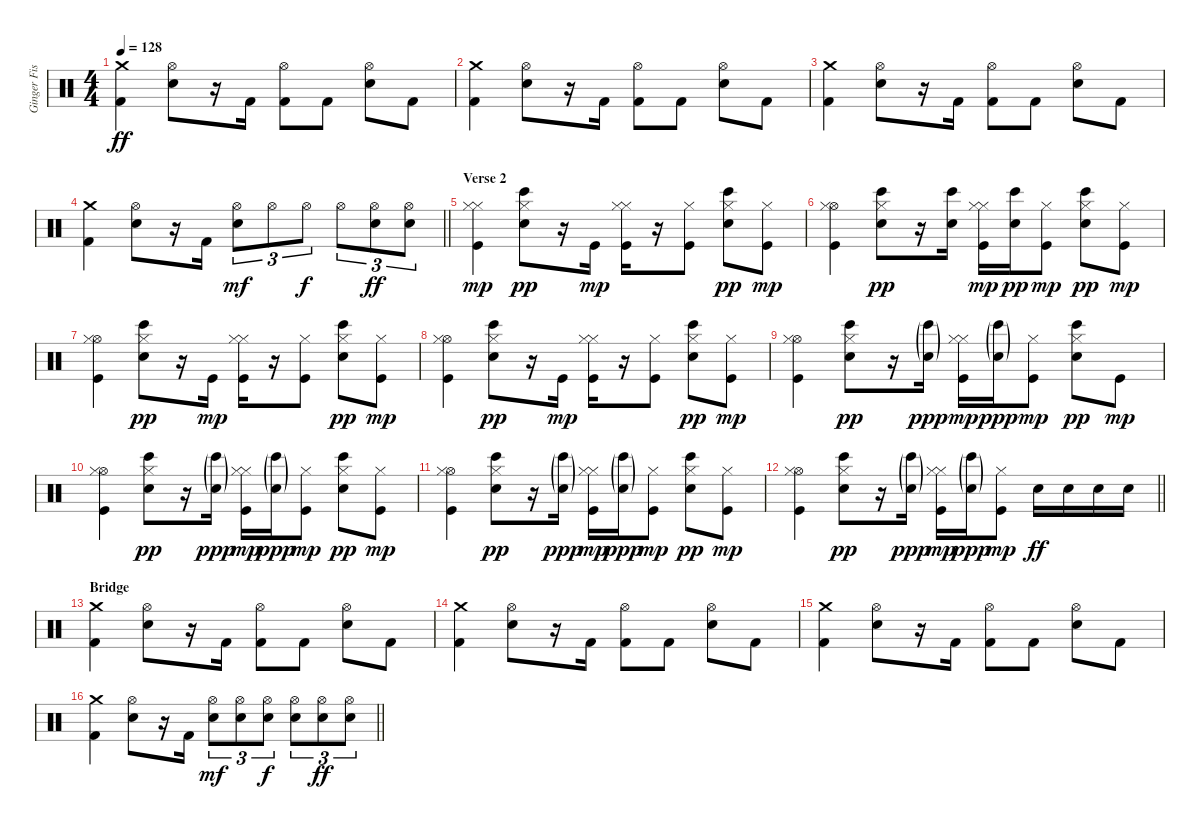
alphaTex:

\track ("Ginger Fish" "Ginger Fis") {instrument percussion}
\staff {score}
\articulation defaults
\ts (4 4)
\tempo 128
\clef neutral
\ks c
("Crash medium (hit)" "Kick (hit) 2").4{dy ff} ("Hi-Hat (open)" "Electric Snare (hit)").8 r.16 "Kick (hit) 2".16 ("Hi-Hat (open)" "Kick (hit) 2").8 "Kick (hit) 2".8 ("Hi-Hat (open)" "Electric Snare (hit)").8 "Kick (hit) 2".8 |
("Crash medium (hit)" "Kick (hit) 2").4 ("Hi-Hat (open)" "Electric Snare (hit)").8 r.16 "Kick (hit) 2".16 ("Hi-Hat (open)" "Kick (hit) 2").8 "Kick (hit) 2".8 ("Hi-Hat (open)" "Electric Snare (hit)").8 "Kick (hit) 2".8 |
("Crash medium (hit)" "Kick (hit) 2").4 ("Hi-Hat (open)" "Electric Snare (hit)").8 r.16 "Kick (hit) 2".16 ("Hi-Hat (open)" "Kick (hit) 2").8 "Kick (hit) 2".8 ("Hi-Hat (open)" "Electric Snare (hit)").8 "Kick (hit) 2".8 |
\barLineRight lightlight
("Crash medium (hit)" "Kick (hit) 2").4 ("Hi-Hat (open)" "Electric Snare (hit)").8 r.16 "Kick (hit) 2".16 ("Hi-Hat (open)" "Electric Snare (hit)").8{tu (3 2) dy mf} "Hi-Hat (open)".8{tu (3 2)} "Hi-Hat (open)".8{tu (3 2) dy f} "Hi-Hat (open)".8{tu (3 2)} ("Hi-Hat (open)" "Electric Snare (hit)").8{tu (3 2) dy ff} ("Hi-Hat (open)" "Electric Snare (hit)").8{tu (3 2)} |
\section ("" "Verse 2")
("Hi-Hat (closed)" "Hi-Hat (closed)" "Kick (hit)").4{dy mp} ("Hi-Hat (closed)" "Bongo High (hit)" "Electric Snare (hit)").8{dy pp} r.16 "Kick (hit)".16{dy mp} ("Hi-Hat (closed)" "Hi-Hat (closed)" "Kick (hit)").16 r.16 ("Hi-Hat (closed)" "Kick (hit)").8 ("Hi-Hat (closed)" "Bongo High (hit)" "Electric Snare (hit)").8{dy pp} ("Hi-Hat (closed)" "Kick (hit)").8{dy mp} |
("Hi-Hat (open)" "Hi-Hat (closed)" "Kick (hit)").4 ("Hi-Hat (closed)" "Bongo High (hit)" "Electric Snare (hit)").8{dy pp} r.16 ("Bongo High (hit)" "Electric Snare (hit)").16 ("Hi-Hat (closed)" "Hi-Hat (closed)" "Kick (hit)").16{dy mp} ("Bongo High (hit)" "Electric Snare (hit)").16{dy pp} ("Hi-Hat (closed)" "Kick (hit)").8{dy mp} ("Hi-Hat (closed)" "Bongo High (hit)" "Electric Snare (hit)").8{dy pp} ("Hi-Hat (closed)" "Kick (hit)").8{dy mp} |
("Hi-Hat (open)" "Hi-Hat (closed)" "Kick (hit)").4 ("Hi-Hat (closed)" "Bongo High (hit)" "Electric Snare (hit)").8{dy pp} r.16 "Kick (hit)".16{dy mp} ("Hi-Hat (closed)" "Hi-Hat (closed)" "Kick (hit)").16 r.16 ("Hi-Hat (closed)" "Kick (hit)").8 ("Hi-Hat (closed)" "Bongo High (hit)" "Electric Snare (hit)").8{dy pp} ("Hi-Hat (closed)" "Kick (hit)").8{dy mp} |
("Hi-Hat (open)" "Hi-Hat (closed)" "Kick (hit)").4 ("Hi-Hat (closed)" "Bongo High (hit)" "Electric Snare (hit)").8{dy pp} r.16 "Kick (hit)".16{dy mp} ("Hi-Hat (closed)" "Hi-Hat (closed)" "Kick (hit)").16 r.16 ("Hi-Hat (closed)" "Kick (hit)").8 ("Hi-Hat (closed)" "Bongo High (hit)" "Electric Snare (hit)").8{dy pp} ("Hi-Hat (closed)" "Kick (hit)").8{dy mp} |
("Hi-Hat (open)" "Hi-Hat (closed)" "Kick (hit)").4 ("Hi-Hat (closed)" "Bongo High (hit)" "Electric Snare (hit)").8{dy pp} r.16 ("Bongo High (hit)"{g} "Electric Snare (hit)"{g}).16{dy ppp} ("Hi-Hat (closed)" "Hi-Hat (closed)" "Kick (hit)").16{dy mp} ("Bongo High (hit)"{g} "Electric Snare (hit)"{g}).16{dy ppp} ("Hi-Hat (closed)" "Kick (hit)").8{dy mp} ("Hi-Hat (closed)" "Bongo High (hit)" "Electric Snare (hit)").8{dy pp} "Kick (hit)".8{dy mp} |
("Hi-Hat (open)" "Hi-Hat (closed)" "Kick (hit)").4 ("Hi-Hat (closed)" "Bongo High (hit)" "Electric Snare (hit)").8{dy pp} r.16 ("Bongo High (hit)"{g} "Electric Snare (hit)"{g}).16{dy ppp} ("Hi-Hat (closed)" "Hi-Hat (closed)" "Kick (hit)").16{dy mp} ("Bongo High (hit)"{g} "Electric Snare (hit)"{g}).16{dy ppp} ("Hi-Hat (closed)" "Kick (hit)").8{dy mp} ("Hi-Hat (closed)" "Bongo High (hit)" "Electric Snare (hit)").8{dy pp} ("Hi-Hat (closed)" "Kick (hit)").8{dy mp} |
("Hi-Hat (open)" "Hi-Hat (closed)" "Kick (hit)").4 ("Hi-Hat (closed)" "Bongo High (hit)" "Electric Snare (hit)").8{dy pp} r.16 ("Bongo High (hit)"{g} "Electric Snare (hit)"{g}).16{dy ppp} ("Hi-Hat (closed)" "Hi-Hat (closed)" "Kick (hit)").16{dy mp} ("Bongo High (hit)"{g} "Electric Snare (hit)"{g}).16{dy ppp} ("Hi-Hat (closed)" "Kick (hit)").8{dy mp} ("Hi-Hat (closed)" "Bongo High (hit)" "Electric Snare (hit)").8{dy pp} ("Hi-Hat (closed)" "Kick (hit)").8{dy mp} |
\barLineRight lightlight
("Hi-Hat (open)" "Hi-Hat (closed)" "Kick (hit)").4 ("Hi-Hat (closed)" "Bongo High (hit)" "Electric Snare (hit)").8{dy pp} r.16 ("Bongo High (hit)"{g} "Electric Snare (hit)"{g}).16{dy ppp} ("Hi-Hat (closed)" "Hi-Hat (closed)" "Kick (hit)").16{dy mp} ("Bongo High (hit)"{g} "Electric Snare (hit)"{g}).16{dy ppp} ("Hi-Hat (closed)" "Kick (hit)").8{dy mp} "Electric Snare (hit)".16{dy ff} "Electric Snare (hit)".16 "Electric Snare (hit)".16 "Electric Snare (hit)".16 |
\section ("" "Bridge")
("Crash medium (hit)" "Kick (hit) 2").4 ("Hi-Hat (open)" "Electric Snare (hit)").8 r.16 "Kick (hit) 2".16 ("Hi-Hat (open)" "Kick (hit) 2").8 "Kick (hit) 2".8 ("Hi-Hat (open)" "Electric Snare (hit)").8 "Kick (hit) 2".8 |
("Crash medium (hit)" "Kick (hit) 2").4 ("Hi-Hat (open)" "Electric Snare (hit)").8 r.16 "Kick (hit) 2".16 ("Hi-Hat (open)" "Kick (hit) 2").8 "Kick (hit) 2".8 ("Hi-Hat (open)" "Electric Snare (hit)").8 "Kick (hit) 2".8 |
("Crash medium (hit)" "Kick (hit) 2").4 ("Hi-Hat (open)" "Electric Snare (hit)").8 r.16 "Kick (hit) 2".16 ("Hi-Hat (open)" "Kick (hit) 2").8 "Kick (hit) 2".8 ("Hi-Hat (open)" "Electric Snare (hit)").8 "Kick (hit) 2".8 |
\barLineRight lightlight
("Crash medium (hit)" "Kick (hit) 2").4 ("Hi-Hat (open)" "Electric Snare (hit)").8 r.16 "Kick (hit) 2".16 ("Hi-Hat (open)" "Electric Snare (hit)").8{tu (3 2) dy mf} ("Hi-Hat (open)" "Electric Snare (hit)").8{tu (3 2)} ("Hi-Hat (open)" "Electric Snare (hit)").8{tu (3 2) dy f} ("Hi-Hat (open)" "Electric Snare (hit)").8{tu (3 2)} ("Hi-Hat (open)" "Electric Snare (hit)").8{tu (3 2) dy ff} ("Hi-Hat (open)" "Electric Snare (hit)").8{tu (3 2)}
